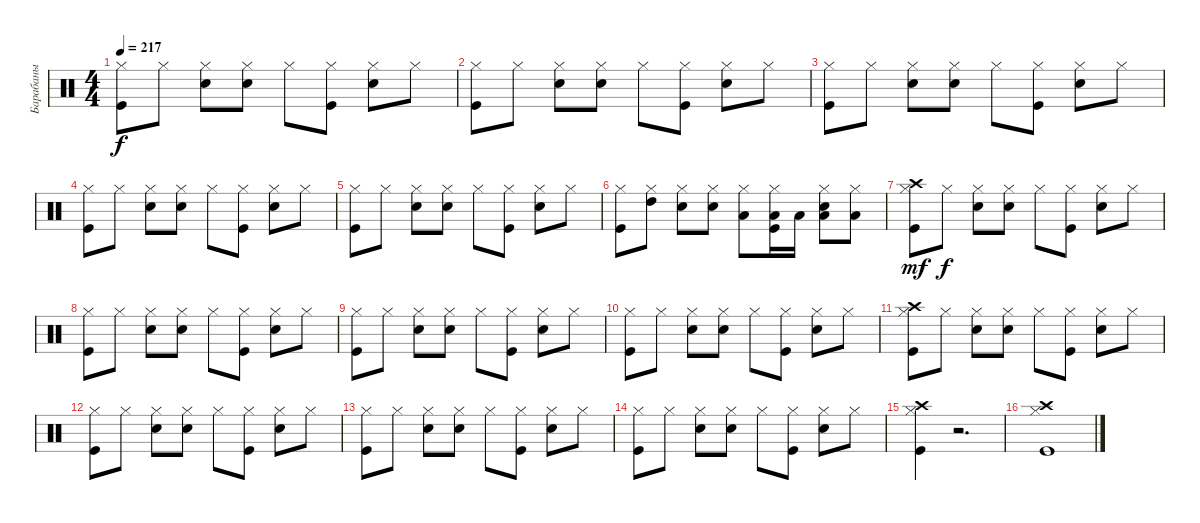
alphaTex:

\track ("Барабаны" "Барабаны") {instrument percussion}
\staff {score}
\articulation defaults
\ts (4 4)
\tempo 217
\clef neutral
\ks c
("Kick (hit)" "Hi-Hat (closed)").8{dy f} "Hi-Hat (closed)".8 ("Snare (hit) 2" "Hi-Hat (closed)").8 ("Snare (hit) 2" "Hi-Hat (closed)").8 "Hi-Hat (closed)".8 ("Kick (hit)" "Hi-Hat (closed)").8 ("Snare (hit) 2" "Hi-Hat (closed)").8 "Hi-Hat (closed)".8 |
("Kick (hit)" "Hi-Hat (closed)").8 "Hi-Hat (closed)".8 ("Snare (hit) 2" "Hi-Hat (closed)").8 ("Snare (hit) 2" "Hi-Hat (closed)").8 "Hi-Hat (closed)".8 ("Kick (hit)" "Hi-Hat (closed)").8 ("Snare (hit) 2" "Hi-Hat (closed)").8 "Hi-Hat (closed)".8 |
("Kick (hit)" "Hi-Hat (closed)").8 "Hi-Hat (closed)".8 ("Snare (hit) 2" "Hi-Hat (closed)").8 ("Snare (hit) 2" "Hi-Hat (closed)").8 "Hi-Hat (closed)".8 ("Kick (hit)" "Hi-Hat (closed)").8 ("Snare (hit) 2" "Hi-Hat (closed)").8 "Hi-Hat (closed)".8 |
("Kick (hit)" "Hi-Hat (closed)").8 "Hi-Hat (closed)".8 ("Snare (hit) 2" "Hi-Hat (closed)").8 ("Snare (hit) 2" "Hi-Hat (closed)").8 "Hi-Hat (closed)".8 ("Kick (hit)" "Hi-Hat (closed)").8 ("Snare (hit) 2" "Hi-Hat (closed)").8 "Hi-Hat (closed)".8 |
("Kick (hit)" "Hi-Hat (closed)").8 "Hi-Hat (closed)".8 ("Snare (hit) 2" "Hi-Hat (closed)").8 ("Snare (hit) 2" "Hi-Hat (closed)").8 "Hi-Hat (closed)".8 ("Kick (hit)" "Hi-Hat (closed)").8 ("Snare (hit) 2" "Hi-Hat (closed)").8 "Hi-Hat (closed)".8 |
("Kick (hit)" "Hi-Hat (closed)").8 ("Hi-Hat (closed)" "High Tom (hit)").8 ("Snare (hit) 2" "Hi-Hat (closed)").8 ("Snare (hit) 2" "Hi-Hat (closed)").8 ("Hi-Hat (closed)" "Low Tom (hit)").8 ("Kick (hit)" "Hi-Hat (closed)" "Low Tom (hit)").16 "Low Tom (hit)".16 ("Snare (hit) 2" "Hi-Hat (closed)" "Low Tom (hit)").8 ("Hi-Hat (closed)" "Low Floor Tom (hit)").8 |
("Kick (hit)" "Hi-Hat (closed)" "Crash high (hit)").8{dy mf} "Hi-Hat (closed)".8{dy f} ("Snare (hit) 2" "Hi-Hat (closed)").8 ("Snare (hit) 2" "Hi-Hat (closed)").8 "Hi-Hat (closed)".8 ("Kick (hit)" "Hi-Hat (closed)").8 ("Snare (hit) 2" "Hi-Hat (closed)").8 "Hi-Hat (closed)".8 |
("Kick (hit)" "Hi-Hat (closed)").8 "Hi-Hat (closed)".8 ("Snare (hit) 2" "Hi-Hat (closed)").8 ("Snare (hit) 2" "Hi-Hat (closed)").8 "Hi-Hat (closed)".8 ("Kick (hit)" "Hi-Hat (closed)").8 ("Snare (hit) 2" "Hi-Hat (closed)").8 "Hi-Hat (closed)".8 |
("Kick (hit)" "Hi-Hat (closed)").8 "Hi-Hat (closed)".8 ("Snare (hit) 2" "Hi-Hat (closed)").8 ("Snare (hit) 2" "Hi-Hat (closed)").8 "Hi-Hat (closed)".8 ("Kick (hit)" "Hi-Hat (closed)").8 ("Snare (hit) 2" "Hi-Hat (closed)").8 "Hi-Hat (closed)".8 |
("Kick (hit)" "Hi-Hat (closed)").8 "Hi-Hat (closed)".8 ("Snare (hit) 2" "Hi-Hat (closed)").8 ("Snare (hit) 2" "Hi-Hat (closed)").8 "Hi-Hat (closed)".8 ("Kick (hit)" "Hi-Hat (closed)").8 ("Snare (hit) 2" "Hi-Hat (closed)").8 "Hi-Hat (closed)".8 |
("Kick (hit)" "Hi-Hat (closed)" "Crash high (hit)").8 "Hi-Hat (closed)".8 ("Snare (hit) 2" "Hi-Hat (closed)").8 ("Snare (hit) 2" "Hi-Hat (closed)").8 "Hi-Hat (closed)".8 ("Kick (hit)" "Hi-Hat (closed)").8 ("Snare (hit) 2" "Hi-Hat (closed)").8 "Hi-Hat (closed)".8 |
("Kick (hit)" "Hi-Hat (closed)").8 "Hi-Hat (closed)".8 ("Snare (hit) 2" "Hi-Hat (closed)").8 ("Snare (hit) 2" "Hi-Hat (closed)").8 "Hi-Hat (closed)".8 ("Kick (hit)" "Hi-Hat (closed)").8 ("Snare (hit) 2" "Hi-Hat (closed)").8 "Hi-Hat (closed)".8 |
("Kick (hit)" "Hi-Hat (closed)").8 "Hi-Hat (closed)".8 ("Snare (hit) 2" "Hi-Hat (closed)").8 ("Snare (hit) 2" "Hi-Hat (closed)").8 "Hi-Hat (closed)".8 ("Kick (hit)" "Hi-Hat (closed)").8 ("Snare (hit) 2" "Hi-Hat (closed)").8 "Hi-Hat (closed)".8 |
("Kick (hit)" "Hi-Hat (closed)").8 "Hi-Hat (closed)".8 ("Snare (hit) 2" "Hi-Hat (closed)").8 ("Snare (hit) 2" "Hi-Hat (closed)").8 "Hi-Hat (closed)".8 ("Kick (hit)" "Hi-Hat (closed)").8 ("Snare (hit) 2" "Hi-Hat (closed)").8 "Hi-Hat (closed)".8 |
("Kick (hit)" "Hi-Hat (closed)" "Crash high (hit)").4 r.2{d} |
("Kick (hit)" "Hi-Hat (closed)" "Crash high (hit)").1
